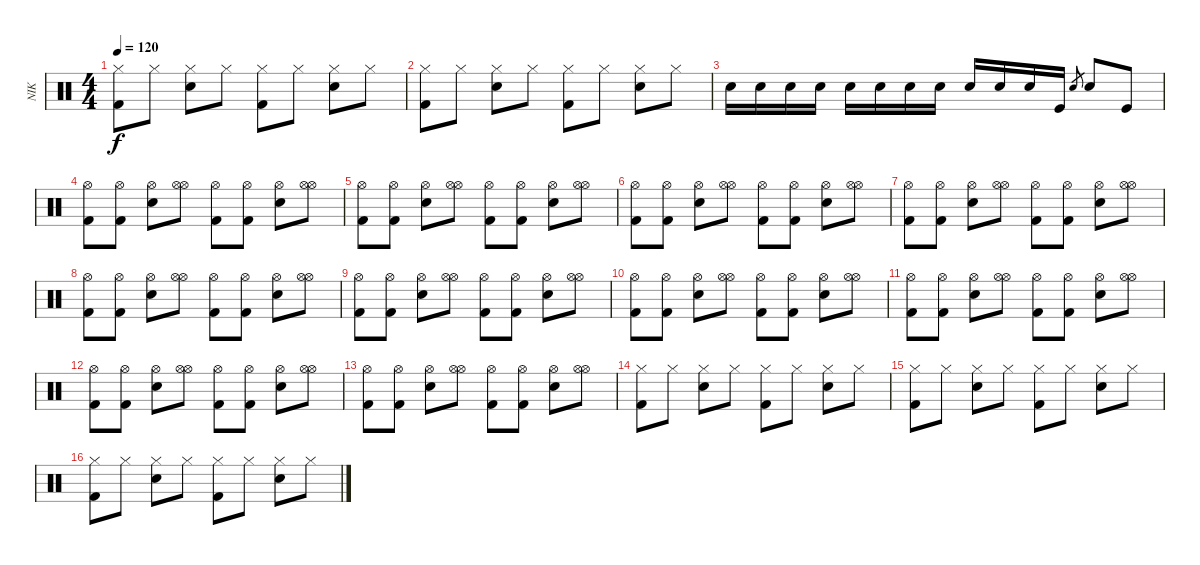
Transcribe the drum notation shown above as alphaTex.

\track ("NIK" "NIK") {instrument percussion}
\staff {score}
\articulation defaults
\ts (4 4)
\tempo 120
\clef neutral
\ks c
("Hi-Hat (closed)" "Kick (hit) 2").8{dy f} "Hi-Hat (closed)".8 ("Hi-Hat (closed)" "Electric Snare (hit)").8 "Hi-Hat (closed)".8 ("Hi-Hat (closed)" "Kick (hit) 2").8 "Hi-Hat (closed)".8 ("Hi-Hat (closed)" "Electric Snare (hit)").8 "Hi-Hat (closed)".8 |
("Hi-Hat (closed)" "Kick (hit) 2").8 "Hi-Hat (closed)".8 ("Hi-Hat (closed)" "Electric Snare (hit)").8 "Hi-Hat (closed)".8 ("Hi-Hat (closed)" "Kick (hit) 2").8 "Hi-Hat (closed)".8 ("Hi-Hat (closed)" "Electric Snare (hit)").8 "Hi-Hat (closed)".8 |
"Snare (hit) 2".16 "Snare (hit) 2".16 "Snare (hit) 2".16 "Snare (hit) 2".16 "Snare (hit) 2".16 "Snare (hit) 2".16 "Snare (hit) 2".16 "Snare (hit) 2".16 "Snare (hit) 2".16 "Snare (hit) 2".16 "Snare (hit) 2".16 "Kick (hit)".16 "Snare (hit) 2".8{gr} "Snare (hit) 2".8 "Kick (hit)".8 |
("Kick (hit) 2" "Hi-Hat (open)").8 ("Kick (hit) 2" "Hi-Hat (open)").8 ("Electric Snare (hit)" "Hi-Hat (open)").8 ("Hi-Hat (open)" "Hi-Hat (open)").8 ("Kick (hit) 2" "Hi-Hat (open)").8 ("Kick (hit) 2" "Hi-Hat (open)").8 ("Electric Snare (hit)" "Hi-Hat (open)").8 ("Hi-Hat (open)" "Hi-Hat (open)").8 |
("Kick (hit) 2" "Hi-Hat (open)").8 ("Kick (hit) 2" "Hi-Hat (open)").8 ("Electric Snare (hit)" "Hi-Hat (open)").8 ("Hi-Hat (open)" "Hi-Hat (open)").8 ("Kick (hit) 2" "Hi-Hat (open)").8 ("Kick (hit) 2" "Hi-Hat (open)").8 ("Electric Snare (hit)" "Hi-Hat (open)").8 ("Hi-Hat (open)" "Hi-Hat (open)").8 |
("Kick (hit) 2" "Hi-Hat (open)").8 ("Kick (hit) 2" "Hi-Hat (open)").8 ("Electric Snare (hit)" "Hi-Hat (open)").8 ("Hi-Hat (open)" "Hi-Hat (open)").8 ("Kick (hit) 2" "Hi-Hat (open)").8 ("Kick (hit) 2" "Hi-Hat (open)").8 ("Electric Snare (hit)" "Hi-Hat (open)").8 ("Hi-Hat (open)" "Hi-Hat (open)").8 |
("Kick (hit) 2" "Hi-Hat (open)").8 ("Kick (hit) 2" "Hi-Hat (open)").8 ("Electric Snare (hit)" "Hi-Hat (open)").8 ("Hi-Hat (open)" "Hi-Hat (open)").8 ("Kick (hit) 2" "Hi-Hat (open)").8 ("Kick (hit) 2" "Hi-Hat (open)").8 ("Electric Snare (hit)" "Hi-Hat (open)").8 ("Hi-Hat (open)" "Hi-Hat (open)").8 |
("Kick (hit) 2" "Hi-Hat (open)").8 ("Kick (hit) 2" "Hi-Hat (open)").8 ("Electric Snare (hit)" "Hi-Hat (open)").8 ("Hi-Hat (open)" "Hi-Hat (open)").8 ("Kick (hit) 2" "Hi-Hat (open)").8 ("Kick (hit) 2" "Hi-Hat (open)").8 ("Electric Snare (hit)" "Hi-Hat (open)").8 ("Hi-Hat (open)" "Hi-Hat (open)").8 |
("Kick (hit) 2" "Hi-Hat (open)").8 ("Kick (hit) 2" "Hi-Hat (open)").8 ("Electric Snare (hit)" "Hi-Hat (open)").8 ("Hi-Hat (open)" "Hi-Hat (open)").8 ("Kick (hit) 2" "Hi-Hat (open)").8 ("Kick (hit) 2" "Hi-Hat (open)").8 ("Electric Snare (hit)" "Hi-Hat (open)").8 ("Hi-Hat (open)" "Hi-Hat (open)").8 |
("Kick (hit) 2" "Hi-Hat (open)").8 ("Kick (hit) 2" "Hi-Hat (open)").8 ("Electric Snare (hit)" "Hi-Hat (open)").8 ("Hi-Hat (open)" "Hi-Hat (open)").8 ("Kick (hit) 2" "Hi-Hat (open)").8 ("Kick (hit) 2" "Hi-Hat (open)").8 ("Electric Snare (hit)" "Hi-Hat (open)").8 ("Hi-Hat (open)" "Hi-Hat (open)").8 |
("Kick (hit) 2" "Hi-Hat (open)").8 ("Kick (hit) 2" "Hi-Hat (open)").8 ("Electric Snare (hit)" "Hi-Hat (open)").8 ("Hi-Hat (open)" "Hi-Hat (open)").8 ("Kick (hit) 2" "Hi-Hat (open)").8 ("Kick (hit) 2" "Hi-Hat (open)").8 ("Electric Snare (hit)" "Hi-Hat (open)").8 ("Hi-Hat (open)" "Hi-Hat (open)").8 |
("Kick (hit) 2" "Hi-Hat (open)").8 ("Kick (hit) 2" "Hi-Hat (open)").8 ("Electric Snare (hit)" "Hi-Hat (open)").8 ("Hi-Hat (open)" "Hi-Hat (open)").8 ("Kick (hit) 2" "Hi-Hat (open)").8 ("Kick (hit) 2" "Hi-Hat (open)").8 ("Electric Snare (hit)" "Hi-Hat (open)").8 ("Hi-Hat (open)" "Hi-Hat (open)").8 |
("Kick (hit) 2" "Hi-Hat (open)").8 ("Kick (hit) 2" "Hi-Hat (open)").8 ("Electric Snare (hit)" "Hi-Hat (open)").8 ("Hi-Hat (open)" "Hi-Hat (open)").8 ("Kick (hit) 2" "Hi-Hat (open)").8 ("Kick (hit) 2" "Hi-Hat (open)").8 ("Electric Snare (hit)" "Hi-Hat (open)").8 ("Hi-Hat (open)" "Hi-Hat (open)").8 |
("Hi-Hat (closed)" "Kick (hit) 2").8 "Hi-Hat (closed)".8 ("Hi-Hat (closed)" "Electric Snare (hit)").8 "Hi-Hat (closed)".8 ("Hi-Hat (closed)" "Kick (hit) 2").8 "Hi-Hat (closed)".8 ("Hi-Hat (closed)" "Electric Snare (hit)").8 "Hi-Hat (closed)".8 |
("Hi-Hat (closed)" "Kick (hit) 2").8 "Hi-Hat (closed)".8 ("Hi-Hat (closed)" "Electric Snare (hit)").8 "Hi-Hat (closed)".8 ("Hi-Hat (closed)" "Kick (hit) 2").8 "Hi-Hat (closed)".8 ("Hi-Hat (closed)" "Electric Snare (hit)").8 "Hi-Hat (closed)".8 |
("Hi-Hat (closed)" "Kick (hit) 2").8 "Hi-Hat (closed)".8 ("Hi-Hat (closed)" "Electric Snare (hit)").8 "Hi-Hat (closed)".8 ("Hi-Hat (closed)" "Kick (hit) 2").8 "Hi-Hat (closed)".8 ("Hi-Hat (closed)" "Electric Snare (hit)").8 "Hi-Hat (closed)".8
